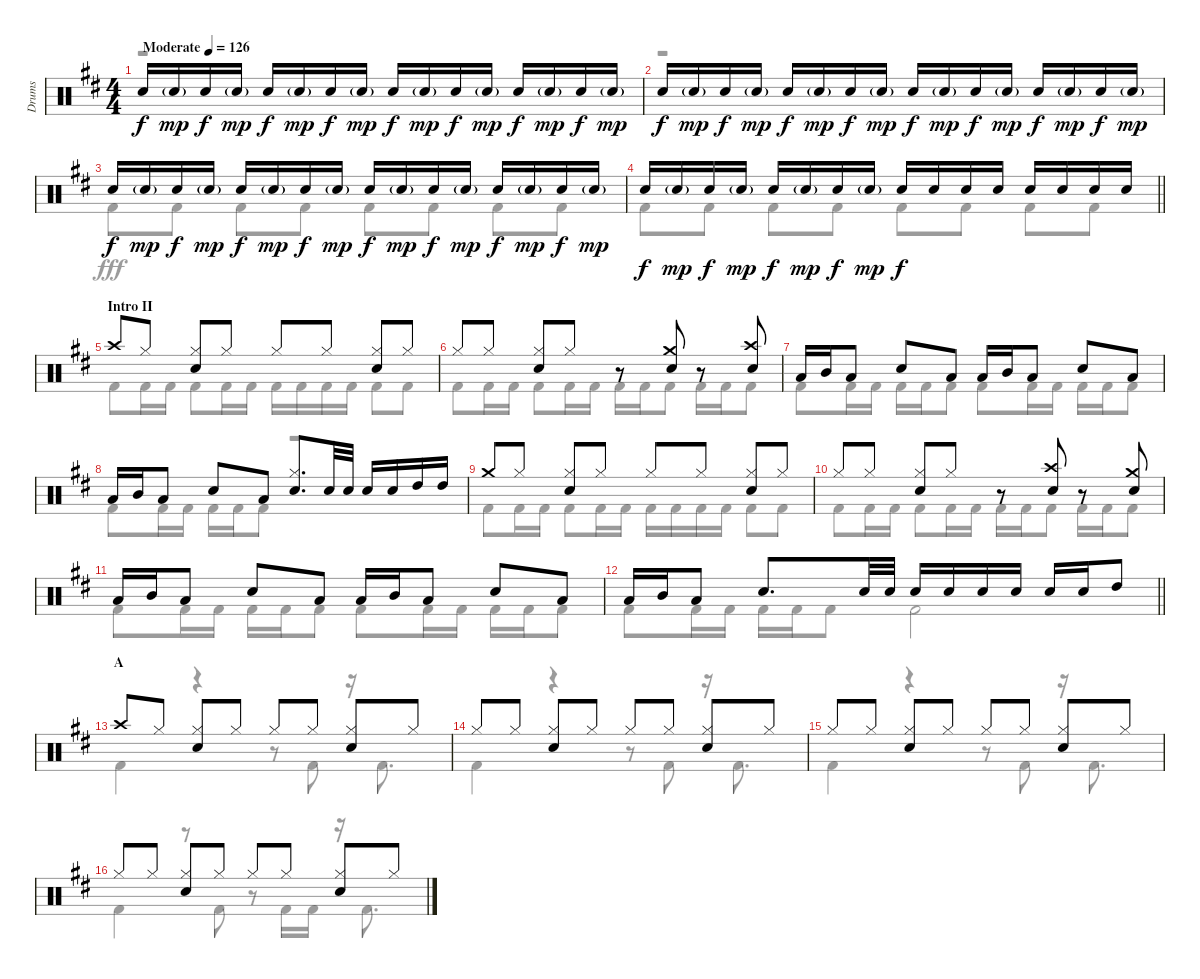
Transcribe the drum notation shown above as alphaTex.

\track ("Drums" "Drums") {instrument percussion}
\staff {score}
\articulation defaults
\voice
\ts (4 4)
\tempo (126 "Moderate")
\clef neutral
\ks d "Snare (hit) 2".16{dy f} "Snare (hit) 2"{g}.16{dy mp} "Snare (hit) 2".16{dy f} "Snare (hit) 2"{g}.16{dy mp} "Snare (hit) 2".16{dy f} "Snare (hit) 2"{g}.16{dy mp} "Snare (hit) 2".16{dy f} "Snare (hit) 2"{g}.16{dy mp} "Snare (hit) 2".16{dy f} "Snare (hit) 2"{g}.16{dy mp} "Snare (hit) 2".16{dy f} "Snare (hit) 2"{g}.16{dy mp} "Snare (hit) 2".16{dy f} "Snare (hit) 2"{g}.16{dy mp} "Snare (hit) 2".16{dy f} "Snare (hit) 2"{g}.16{dy mp}
|
"Snare (hit) 2".16{dy f} "Snare (hit) 2"{g}.16{dy mp} "Snare (hit) 2".16{dy f} "Snare (hit) 2"{g}.16{dy mp} "Snare (hit) 2".16{dy f} "Snare (hit) 2"{g}.16{dy mp} "Snare (hit) 2".16{dy f} "Snare (hit) 2"{g}.16{dy mp} "Snare (hit) 2".16{dy f} "Snare (hit) 2"{g}.16{dy mp} "Snare (hit) 2".16{dy f} "Snare (hit) 2"{g}.16{dy mp} "Snare (hit) 2".16{dy f} "Snare (hit) 2"{g}.16{dy mp} "Snare (hit) 2".16{dy f} "Snare (hit) 2"{g}.16{dy mp} |
"Snare (hit) 2".16{dy f} "Snare (hit) 2"{g}.16{dy mp} "Snare (hit) 2".16{dy f} "Snare (hit) 2"{g}.16{dy mp} "Snare (hit) 2".16{dy f} "Snare (hit) 2"{g}.16{dy mp} "Snare (hit) 2".16{dy f} "Snare (hit) 2"{g}.16{dy mp} "Snare (hit) 2".16{dy f} "Snare (hit) 2"{g}.16{dy mp} "Snare (hit) 2".16{dy f} "Snare (hit) 2"{g}.16{dy mp} "Snare (hit) 2".16{dy f} "Snare (hit) 2"{g}.16{dy mp} "Snare (hit) 2".16{dy f} "Snare (hit) 2"{g}.16{dy mp} |
\barLineRight lightlight "Snare (hit) 2".16{dy f} "Snare (hit) 2"{g}.16{dy mp} "Snare (hit) 2".16{dy f} "Snare (hit) 2"{g}.16{dy mp} "Snare (hit) 2".16{dy f} "Snare (hit) 2"{g}.16{dy mp} "Snare (hit) 2".16{dy f} "Snare (hit) 2"{g}.16{dy mp} "Snare (hit) 2".16{dy f} "Snare (hit) 2".16 "Snare (hit) 2".16 "Snare (hit) 2".16 "Snare (hit) 2".16 "Snare (hit) 2".16 "Snare (hit) 2".16 "Snare (hit) 2".16
|
\section ("" "Intro II")
"Crash high (hit)".8 "Hi-Hat (closed)".8 ("Hi-Hat (closed)" "Snare (hit) 2").8 "Hi-Hat (closed)".8 "Hi-Hat (closed)".8 "Hi-Hat (closed)".8 ("Hi-Hat (closed)" "Snare (hit) 2").8 "Hi-Hat (closed)".8 |
"Hi-Hat (closed)".8 "Hi-Hat (closed)".8 ("Hi-Hat (closed)" "Snare (hit) 2").8 "Hi-Hat (closed)".8 r.8 ("Crash medium (hit)" "Snare (hit) 2").8 r.8 ("Crash high (hit)" "Snare (hit) 2").8 |
"Low Tom (hit)".16 "Mid Tom (hit)".16 "Low Tom (hit)".8 "Snare (hit) 2".8 "Low Tom (hit)".8 "Low Tom (hit)".16 "Mid Tom (hit)".16 "Low Tom (hit)".8 "Snare (hit) 2".8 "Low Tom (hit)".8 |
"Low Tom (hit)".16 "Mid Tom (hit)".16 "Low Tom (hit)".8 "Snare (hit) 2".8 "Low Tom (hit)".8 ("Hi-Hat (closed)" "Snare (hit) 2").8{d} "Snare (hit) 2".32 "Snare (hit) 2".32 "Snare (hit) 2".16 "Snare (hit) 2".16 "High Tom (hit)".16 "High Tom (hit)".16 |
"Crash medium (hit)".8 "Hi-Hat (closed)".8 ("Hi-Hat (closed)" "Snare (hit) 2").8 "Hi-Hat (closed)".8 "Hi-Hat (closed)".8 "Hi-Hat (closed)".8 ("Hi-Hat (closed)" "Snare (hit) 2").8 "Hi-Hat (closed)".8 |
"Hi-Hat (closed)".8 "Hi-Hat (closed)".8 ("Hi-Hat (closed)" "Snare (hit) 2").8 "Hi-Hat (closed)".8 r.8 ("Crash high (hit)" "Snare (hit) 2").8 r.8 ("Crash medium (hit)" "Snare (hit) 2").8 |
"Low Tom (hit)".16 "Mid Tom (hit)".16 "Low Tom (hit)".8 "Snare (hit) 2".8 "Low Tom (hit)".8 "Low Tom (hit)".16 "Mid Tom (hit)".16 "Low Tom (hit)".8 "Snare (hit) 2".8 "Low Tom (hit)".8 |
\barLineRight lightlight "Low Tom (hit)".16 "Mid Tom (hit)".16 "Low Tom (hit)".8 "Snare (hit) 2".8{d} "Snare (hit) 2".32 "Snare (hit) 2".32 "Snare (hit) 2".16 "Snare (hit) 2".16 "Snare (hit) 2".16 "Snare (hit) 2".16 "Snare (hit) 2".16 "Snare (hit) 2".16 "High Tom (hit)".8
|
\section ("" "A")
"Crash high (hit)".8 "Hi-Hat (closed)".8 ("Hi-Hat (closed)" "Snare (hit) 2").8 "Hi-Hat (closed)".8 "Hi-Hat (closed)".8 "Hi-Hat (closed)".8 ("Hi-Hat (closed)" "Snare (hit) 2").8 "Hi-Hat (closed)".8 |
"Hi-Hat (closed)".8 "Hi-Hat (closed)".8 ("Hi-Hat (closed)" "Snare (hit) 2").8 "Hi-Hat (closed)".8 "Hi-Hat (closed)".8 "Hi-Hat (closed)".8 ("Hi-Hat (closed)" "Snare (hit) 2").8 "Hi-Hat (closed)".8 |
"Hi-Hat (closed)".8 "Hi-Hat (closed)".8 ("Hi-Hat (closed)" "Snare (hit) 2").8 "Hi-Hat (closed)".8 "Hi-Hat (closed)".8 "Hi-Hat (closed)".8 ("Hi-Hat (closed)" "Snare (hit) 2").8 "Hi-Hat (closed)".8 |
"Hi-Hat (closed)".8 "Hi-Hat (closed)".8 ("Hi-Hat (closed)" "Snare (hit) 2").8 "Hi-Hat (closed)".8 "Hi-Hat (closed)".8 "Hi-Hat (closed)".8 ("Hi-Hat (closed)" "Snare (hit) 2").8 "Hi-Hat (closed)".8
\voice
\clef neutral
\ottava regular
\simile none
\ks d
r.1{dy fff} |
r.1 |
"Kick (hit) 2".8 "Kick (hit) 2".8 "Kick (hit) 2".8 "Kick (hit) 2".8 "Kick (hit) 2".8 "Kick (hit) 2".8 "Kick (hit) 2".8 "Kick (hit) 2".8 |
\barLineRight lightlight "Kick (hit) 2".8 "Kick (hit) 2".8 "Kick (hit) 2".8 "Kick (hit) 2".8 "Kick (hit) 2".8 "Kick (hit) 2".8 "Kick (hit) 2".8 "Kick (hit) 2".8
|
"Kick (hit) 2".8 "Kick (hit) 2".16 "Kick (hit) 2".16 "Kick (hit) 2".8 "Kick (hit) 2".16 "Kick (hit) 2".16 "Kick (hit) 2".16 "Kick (hit) 2".16 "Kick (hit) 2".16 "Kick (hit) 2".16 "Kick (hit) 2".8 "Kick (hit) 2".8 |
"Kick (hit) 2".8 "Kick (hit) 2".16 "Kick (hit) 2".16 "Kick (hit) 2".8 "Kick (hit) 2".16 "Kick (hit) 2".16 "Kick (hit) 2".16 "Kick (hit) 2".16 "Kick (hit) 2".8 "Kick (hit) 2".16 "Kick (hit) 2".16 "Kick (hit) 2".8 |
"Kick (hit) 2".8 "Kick (hit) 2".16 "Kick (hit) 2".16 "Kick (hit) 2".16 "Kick (hit) 2".16 "Kick (hit) 2".8 "Kick (hit) 2".8 "Kick (hit) 2".16 "Kick (hit) 2".16 "Kick (hit) 2".16 "Kick (hit) 2".16 "Kick (hit) 2".8 |
"Kick (hit) 2".8 "Kick (hit) 2".16 "Kick (hit) 2".16 "Kick (hit) 2".16 "Kick (hit) 2".16 "Kick (hit) 2".8 r.2 |
"Kick (hit) 2".8 "Kick (hit) 2".16 "Kick (hit) 2".16 "Kick (hit) 2".8 "Kick (hit) 2".16 "Kick (hit) 2".16 "Kick (hit) 2".16 "Kick (hit) 2".16 "Kick (hit) 2".16 "Kick (hit) 2".16 "Kick (hit) 2".8 "Kick (hit) 2".8 |
"Kick (hit) 2".8 "Kick (hit) 2".16 "Kick (hit) 2".16 "Kick (hit) 2".8 "Kick (hit) 2".16 "Kick (hit) 2".16 "Kick (hit) 2".16 "Kick (hit) 2".16 "Kick (hit) 2".8 "Kick (hit) 2".16 "Kick (hit) 2".16 "Kick (hit) 2".8 |
"Kick (hit) 2".8 "Kick (hit) 2".16 "Kick (hit) 2".16 "Kick (hit) 2".16 "Kick (hit) 2".16 "Kick (hit) 2".8 "Kick (hit) 2".8 "Kick (hit) 2".16 "Kick (hit) 2".16 "Kick (hit) 2".16 "Kick (hit) 2".16 "Kick (hit) 2".8 |
\barLineRight lightlight "Kick (hit) 2".8 "Kick (hit) 2".16 "Kick (hit) 2".16 "Kick (hit) 2".16 "Kick (hit) 2".16 "Kick (hit) 2".8 "Kick (hit) 2".2
|
"Kick (hit) 2".4 r.4 r.8 "Kick (hit) 2".8 r.16 "Kick (hit) 2".8{d} |
"Kick (hit) 2".4 r.4 r.8 "Kick (hit) 2".8 r.16 "Kick (hit) 2".8{d} |
"Kick (hit) 2".4 r.4 r.8 "Kick (hit) 2".8 r.16 "Kick (hit) 2".8{d} |
"Kick (hit) 2".4 r.8 "Kick (hit) 2".8 r.8 "Kick (hit) 2".16 "Kick (hit) 2".16 r.16 "Kick (hit) 2".8{d}
